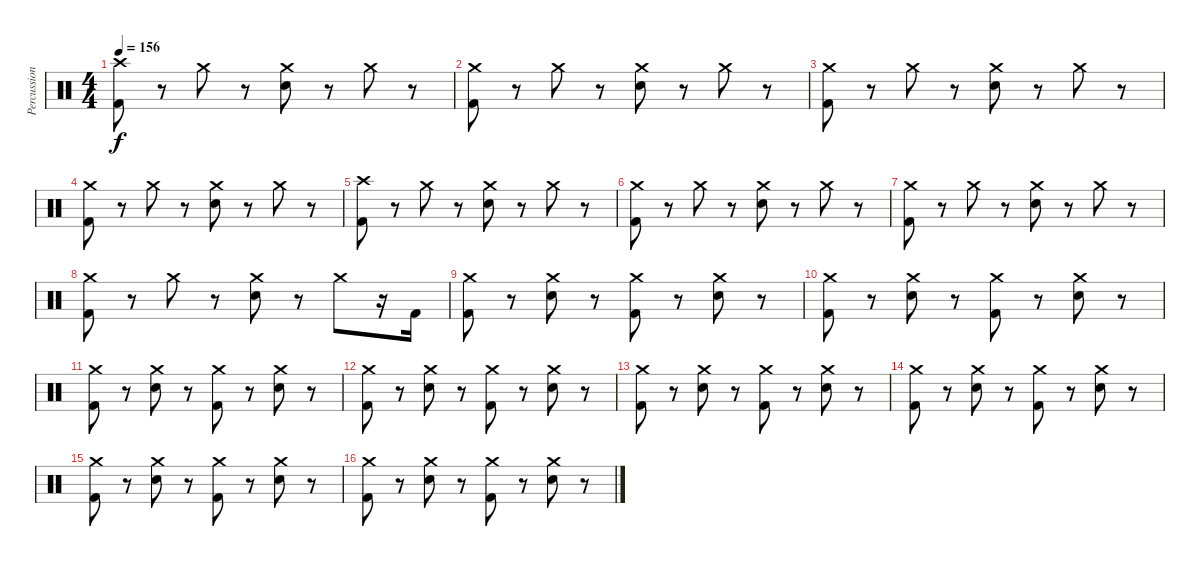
\track ("Percussions" "Percussion") {instrument percussion}
\staff {score}
\articulation defaults
\ts (4 4)
\tempo 156
\clef neutral
\ks c
("Crash high (hit)" "Kick (hit) 2").8{dy f} r.8 "Crash medium (hit)".8 r.8 ("Crash medium (hit)" "Electric Snare (hit)").8 r.8 "Crash medium (hit)".8 r.8 |
("Crash medium (hit)" "Kick (hit) 2").8 r.8 "Crash medium (hit)".8 r.8 ("Crash medium (hit)" "Electric Snare (hit)").8 r.8 "Crash medium (hit)".8 r.8 |
("Crash medium (hit)" "Kick (hit) 2").8 r.8 "Crash medium (hit)".8 r.8 ("Crash medium (hit)" "Electric Snare (hit)").8 r.8 "Crash medium (hit)".8 r.8 |
("Crash medium (hit)" "Kick (hit) 2").8 r.8 "Crash medium (hit)".8 r.8 ("Crash medium (hit)" "Electric Snare (hit)").8 r.8 "Crash medium (hit)".8 r.8 |
("Crash high (hit)" "Kick (hit) 2").8 r.8 "Crash medium (hit)".8 r.8 ("Crash medium (hit)" "Electric Snare (hit)").8 r.8 "Crash medium (hit)".8 r.8 |
("Crash medium (hit)" "Kick (hit) 2").8 r.8 "Crash medium (hit)".8 r.8 ("Crash medium (hit)" "Electric Snare (hit)").8 r.8 "Crash medium (hit)".8 r.8 |
("Crash medium (hit)" "Kick (hit) 2").8 r.8 "Crash medium (hit)".8 r.8 ("Crash medium (hit)" "Electric Snare (hit)").8 r.8 "Crash medium (hit)".8 r.8 |
("Crash medium (hit)" "Kick (hit) 2").8 r.8 "Crash medium (hit)".8 r.8 ("Crash medium (hit)" "Electric Snare (hit)").8 r.8 "Crash medium (hit)".8 r.16 "Kick (hit) 2".16 |
("Crash medium (hit)" "Kick (hit) 2").8 r.8 ("Crash medium (hit)" "Electric Snare (hit)").8 r.8 ("Crash medium (hit)" "Kick (hit) 2").8 r.8 ("Crash medium (hit)" "Electric Snare (hit)").8 r.8 |
("Crash medium (hit)" "Kick (hit) 2").8 r.8 ("Crash medium (hit)" "Electric Snare (hit)").8 r.8 ("Crash medium (hit)" "Kick (hit) 2").8 r.8 ("Crash medium (hit)" "Electric Snare (hit)").8 r.8 |
("Crash medium (hit)" "Kick (hit) 2").8 r.8 ("Crash medium (hit)" "Electric Snare (hit)").8 r.8 ("Crash medium (hit)" "Kick (hit) 2").8 r.8 ("Crash medium (hit)" "Electric Snare (hit)").8 r.8 |
("Crash medium (hit)" "Kick (hit) 2").8 r.8 ("Crash medium (hit)" "Electric Snare (hit)").8 r.8 ("Crash medium (hit)" "Kick (hit) 2").8 r.8 ("Crash medium (hit)" "Electric Snare (hit)").8 r.8 |
("Crash medium (hit)" "Kick (hit) 2").8 r.8 ("Crash medium (hit)" "Electric Snare (hit)").8 r.8 ("Crash medium (hit)" "Kick (hit) 2").8 r.8 ("Crash medium (hit)" "Electric Snare (hit)").8 r.8 |
("Crash medium (hit)" "Kick (hit) 2").8 r.8 ("Crash medium (hit)" "Electric Snare (hit)").8 r.8 ("Crash medium (hit)" "Kick (hit) 2").8 r.8 ("Crash medium (hit)" "Electric Snare (hit)").8 r.8 |
("Crash medium (hit)" "Kick (hit) 2").8 r.8 ("Crash medium (hit)" "Electric Snare (hit)").8 r.8 ("Crash medium (hit)" "Kick (hit) 2").8 r.8 ("Crash medium (hit)" "Electric Snare (hit)").8 r.8 |
("Crash medium (hit)" "Kick (hit) 2").8 r.8 ("Crash medium (hit)" "Electric Snare (hit)").8 r.8 ("Crash medium (hit)" "Kick (hit) 2").8 r.8 ("Crash medium (hit)" "Electric Snare (hit)").8 r.8
